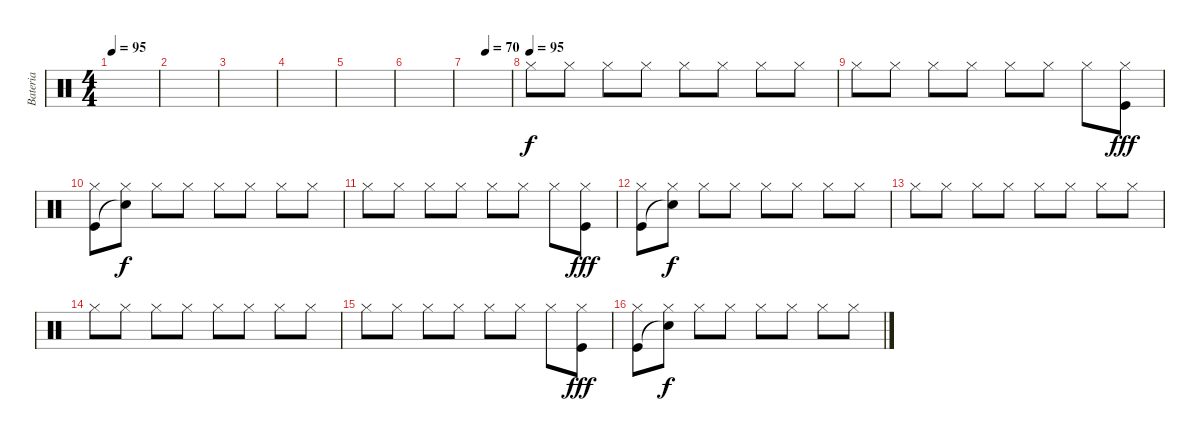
\track ("Bateria" "Bateria") {instrument percussion}
\staff {score}
\articulation defaults
\ts (4 4)
\tempo 95
\clef neutral
\ks c
|
|
|
|
|
|
\tempo (70 0.4375)
|
\tempo (95)
"Hi-Hat (closed)".8 "Hi-Hat (closed)".8 "Hi-Hat (closed)".8 "Hi-Hat (closed)".8 "Hi-Hat (closed)".8 "Hi-Hat (closed)".8 "Hi-Hat (closed)".8 "Hi-Hat (closed)".8 |
"Hi-Hat (closed)".8 "Hi-Hat (closed)".8 "Hi-Hat (closed)".8 "Hi-Hat (closed)".8 "Hi-Hat (closed)".8 "Hi-Hat (closed)".8 "Hi-Hat (closed)".8 ("Hi-Hat (closed)" "Kick (hit)").8{dy fff} |
("Hi-Hat (closed)" "Kick (hit)").8 ("Hi-Hat (closed)" "Snare (hit)"{t}).8{dy f} "Hi-Hat (closed)".8 "Hi-Hat (closed)".8 "Hi-Hat (closed)".8 "Hi-Hat (closed)".8 "Hi-Hat (closed)".8 "Hi-Hat (closed)".8 |
"Hi-Hat (closed)".8 "Hi-Hat (closed)".8 "Hi-Hat (closed)".8 "Hi-Hat (closed)".8 "Hi-Hat (closed)".8 "Hi-Hat (closed)".8 "Hi-Hat (closed)".8 ("Hi-Hat (closed)" "Kick (hit)").8{dy fff} |
("Hi-Hat (closed)" "Kick (hit)").8 ("Hi-Hat (closed)" "Snare (hit)"{t}).8{dy f} "Hi-Hat (closed)".8 "Hi-Hat (closed)".8 "Hi-Hat (closed)".8 "Hi-Hat (closed)".8 "Hi-Hat (closed)".8 "Hi-Hat (closed)".8 |
"Hi-Hat (closed)".8 "Hi-Hat (closed)".8 "Hi-Hat (closed)".8 "Hi-Hat (closed)".8 "Hi-Hat (closed)".8 "Hi-Hat (closed)".8 "Hi-Hat (closed)".8 "Hi-Hat (closed)".8 |
"Hi-Hat (closed)".8 "Hi-Hat (closed)".8 "Hi-Hat (closed)".8 "Hi-Hat (closed)".8 "Hi-Hat (closed)".8 "Hi-Hat (closed)".8 "Hi-Hat (closed)".8 "Hi-Hat (closed)".8 |
"Hi-Hat (closed)".8 "Hi-Hat (closed)".8 "Hi-Hat (closed)".8 "Hi-Hat (closed)".8 "Hi-Hat (closed)".8 "Hi-Hat (closed)".8 "Hi-Hat (closed)".8 ("Hi-Hat (closed)" "Kick (hit)").8{dy fff} |
("Hi-Hat (closed)" "Kick (hit)").8 ("Hi-Hat (closed)" "Snare (hit)"{t}).8{dy f} "Hi-Hat (closed)".8 "Hi-Hat (closed)".8 "Hi-Hat (closed)".8 "Hi-Hat (closed)".8 "Hi-Hat (closed)".8 "Hi-Hat (closed)".8
